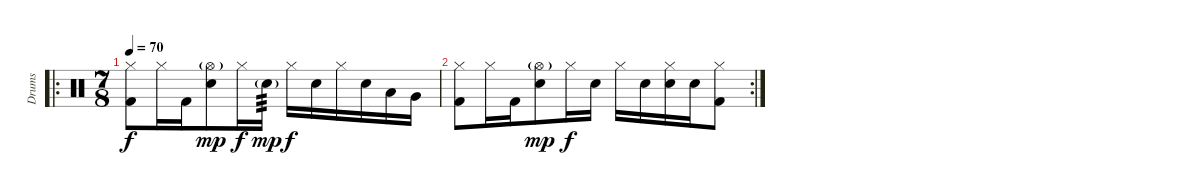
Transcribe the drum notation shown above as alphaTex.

\track ("Drums" "Drums") {instrument percussion}
\staff {score}
\articulation defaults
\ro
\ts (7 8)
\tempo 70
\clef neutral
\ks c
("Hi-Hat (closed)" "Kick (hit) 2").8{dy f} "Hi-Hat (closed)".16 "Kick (hit) 2".16 ("Hi-Hat (open)"{g} "Electric Snare (hit)").8{dy mp} "Hi-Hat (closed)".16{dy f} "Electric Snare (hit)"{g}.16{tp 3 dy mp} "Hi-Hat (closed)".16{dy f} "Electric Snare (hit)".16 "Hi-Hat (closed)".16 "Electric Snare (hit)".16 "Low Tom (hit)".16 "Very Low Tom (hit)".16 |
\rc 2
("Hi-Hat (closed)" "Kick (hit) 2").8 "Hi-Hat (closed)".16 "Kick (hit) 2".16 ("Hi-Hat (open)"{g} "Electric Snare (hit)").8{dy mp} "Hi-Hat (closed)".16{dy f} "Electric Snare (hit)".16 "Hi-Hat (closed)".16 "Electric Snare (hit)".16 ("Hi-Hat (closed)" "Electric Snare (hit)").16 "Electric Snare (hit)".16 ("Hi-Hat (closed)" "Kick (hit) 2").8
